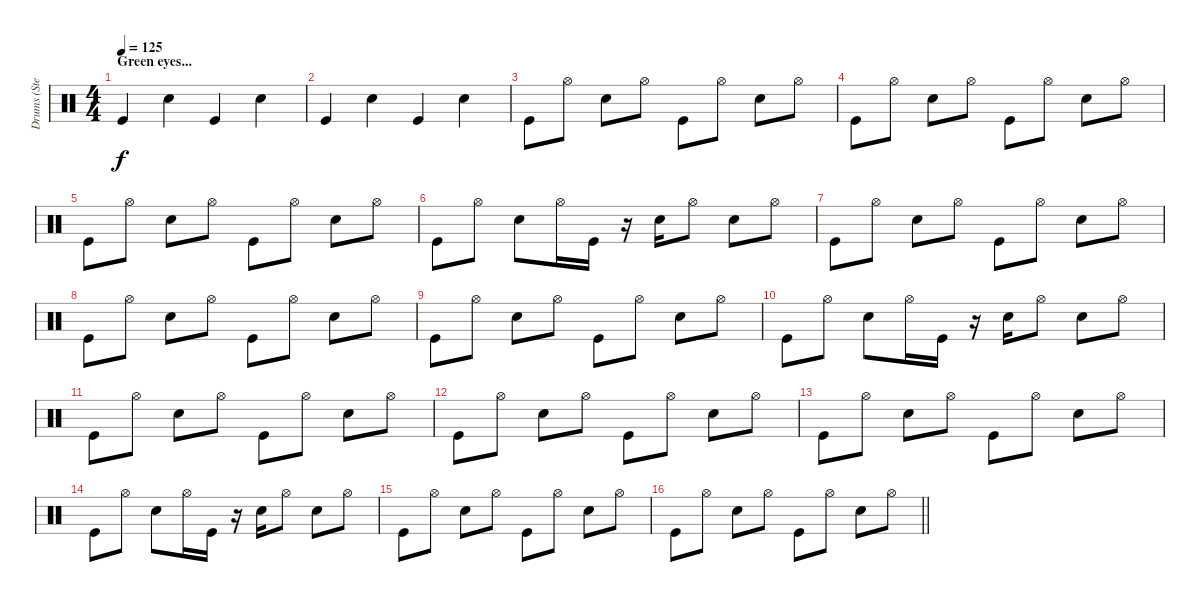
\track ("Drums (Stephen Morris)" "Drums (Ste") {instrument percussion}
\staff {score}
\articulation defaults
\ts (4 4)
\section ("" "Green eyes...")
\tempo 125
\clef neutral
\ks c "Kick (hit)".4{dy f} "Electric Snare (hit)".4 "Kick (hit)".4 "Electric Snare (hit)".4
|
"Kick (hit)".4 "Electric Snare (hit)".4 "Kick (hit)".4 "Electric Snare (hit)".4 |
"Kick (hit)".8 "Hi-Hat (open)".8 "Electric Snare (hit)".8 "Hi-Hat (open)".8 "Kick (hit)".8 "Hi-Hat (open)".8 "Electric Snare (hit)".8 "Hi-Hat (open)".8 |
"Kick (hit)".8 "Hi-Hat (open)".8 "Electric Snare (hit)".8 "Hi-Hat (open)".8 "Kick (hit)".8 "Hi-Hat (open)".8 "Electric Snare (hit)".8 "Hi-Hat (open)".8 |
"Kick (hit)".8 "Hi-Hat (open)".8 "Electric Snare (hit)".8 "Hi-Hat (open)".8 "Kick (hit)".8 "Hi-Hat (open)".8 "Electric Snare (hit)".8 "Hi-Hat (open)".8 |
"Kick (hit)".8 "Hi-Hat (open)".8 "Electric Snare (hit)".8 "Hi-Hat (open)".16 "Kick (hit)".16 r.16 "Electric Snare (hit)".16 "Hi-Hat (open)".8 "Electric Snare (hit)".8 "Hi-Hat (open)".8 |
"Kick (hit)".8 "Hi-Hat (open)".8 "Electric Snare (hit)".8 "Hi-Hat (open)".8 "Kick (hit)".8 "Hi-Hat (open)".8 "Electric Snare (hit)".8 "Hi-Hat (open)".8 |
"Kick (hit)".8 "Hi-Hat (open)".8 "Electric Snare (hit)".8 "Hi-Hat (open)".8 "Kick (hit)".8 "Hi-Hat (open)".8 "Electric Snare (hit)".8 "Hi-Hat (open)".8 |
"Kick (hit)".8 "Hi-Hat (open)".8 "Electric Snare (hit)".8 "Hi-Hat (open)".8 "Kick (hit)".8 "Hi-Hat (open)".8 "Electric Snare (hit)".8 "Hi-Hat (open)".8 |
"Kick (hit)".8 "Hi-Hat (open)".8 "Electric Snare (hit)".8 "Hi-Hat (open)".16 "Kick (hit)".16 r.16 "Electric Snare (hit)".16 "Hi-Hat (open)".8 "Electric Snare (hit)".8 "Hi-Hat (open)".8 |
"Kick (hit)".8 "Hi-Hat (open)".8 "Electric Snare (hit)".8 "Hi-Hat (open)".8 "Kick (hit)".8 "Hi-Hat (open)".8 "Electric Snare (hit)".8 "Hi-Hat (open)".8 |
"Kick (hit)".8 "Hi-Hat (open)".8 "Electric Snare (hit)".8 "Hi-Hat (open)".8 "Kick (hit)".8 "Hi-Hat (open)".8 "Electric Snare (hit)".8 "Hi-Hat (open)".8 |
"Kick (hit)".8 "Hi-Hat (open)".8 "Electric Snare (hit)".8 "Hi-Hat (open)".8 "Kick (hit)".8 "Hi-Hat (open)".8 "Electric Snare (hit)".8 "Hi-Hat (open)".8 |
"Kick (hit)".8 "Hi-Hat (open)".8 "Electric Snare (hit)".8 "Hi-Hat (open)".16 "Kick (hit)".16 r.16 "Electric Snare (hit)".16 "Hi-Hat (open)".8 "Electric Snare (hit)".8 "Hi-Hat (open)".8 |
"Kick (hit)".8 "Hi-Hat (open)".8 "Electric Snare (hit)".8 "Hi-Hat (open)".8 "Kick (hit)".8 "Hi-Hat (open)".8 "Electric Snare (hit)".8 "Hi-Hat (open)".8 |
\barLineRight lightlight "Kick (hit)".8 "Hi-Hat (open)".8 "Electric Snare (hit)".8 "Hi-Hat (open)".8 "Kick (hit)".8 "Hi-Hat (open)".8 "Electric Snare (hit)".8 "Hi-Hat (open)".8
